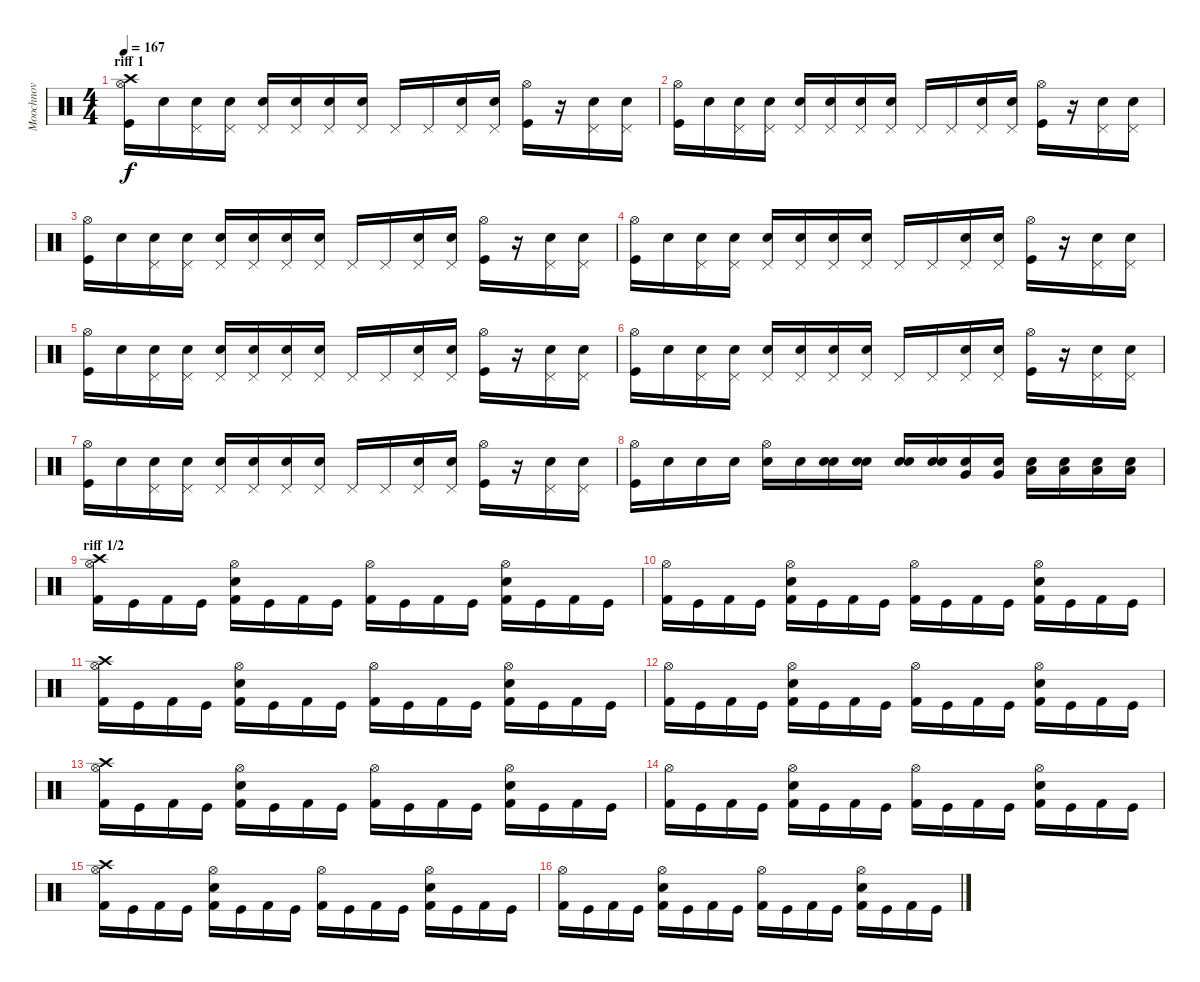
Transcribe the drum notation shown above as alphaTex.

\track ("Moochnov" "Moochnov") {instrument percussion}
\staff {score}
\articulation defaults
\ts (4 4)
\section ("" "riff 1")
\tempo 167
\clef neutral
\ks c
("Kick (hit)" "Hi-Hat (open)" "Crash high (hit)").16{dy f} "Snare (hit)"{x}.16 ("Snare (hit)"{x} "Pedal Hi-Hat (hit)").16 ("Snare (hit)"{x} "Pedal Hi-Hat (hit)").16 ("Snare (hit)"{x} "Pedal Hi-Hat (hit)").16 ("Snare (hit)"{x} "Pedal Hi-Hat (hit)").16 ("Snare (hit) 2" "Pedal Hi-Hat (hit)").16 ("Snare (hit)"{x} "Pedal Hi-Hat (hit)").16 "Pedal Hi-Hat (hit)".16 "Pedal Hi-Hat (hit)".16 ("Snare (hit)"{x} "Pedal Hi-Hat (hit)").16 ("Snare (hit)"{x} "Pedal Hi-Hat (hit)").16 ("Kick (hit)" "Hi-Hat (open)").16 r.16 ("Snare (hit)"{x} "Pedal Hi-Hat (hit)").16 ("Snare (hit)"{x} "Pedal Hi-Hat (hit)").16 |
("Kick (hit)" "Hi-Hat (open)").16 "Snare (hit)"{x}.16 ("Snare (hit)"{x} "Pedal Hi-Hat (hit)").16 ("Snare (hit)"{x} "Pedal Hi-Hat (hit)").16 ("Snare (hit)"{x} "Pedal Hi-Hat (hit)").16 ("Snare (hit)"{x} "Pedal Hi-Hat (hit)").16 ("Snare (hit) 2" "Pedal Hi-Hat (hit)").16 ("Snare (hit)"{x} "Pedal Hi-Hat (hit)").16 "Pedal Hi-Hat (hit)".16 "Pedal Hi-Hat (hit)".16 ("Snare (hit)"{x} "Pedal Hi-Hat (hit)").16 ("Snare (hit)"{x} "Pedal Hi-Hat (hit)").16 ("Kick (hit)" "Hi-Hat (open)").16 r.16 ("Snare (hit)"{x} "Pedal Hi-Hat (hit)").16 ("Snare (hit)"{x} "Pedal Hi-Hat (hit)").16 |
("Kick (hit)" "Hi-Hat (open)").16 "Snare (hit)"{x}.16 ("Snare (hit)"{x} "Pedal Hi-Hat (hit)").16 ("Snare (hit)"{x} "Pedal Hi-Hat (hit)").16 ("Snare (hit)"{x} "Pedal Hi-Hat (hit)").16 ("Snare (hit)"{x} "Pedal Hi-Hat (hit)").16 ("Snare (hit) 2" "Pedal Hi-Hat (hit)").16 ("Snare (hit)"{x} "Pedal Hi-Hat (hit)").16 "Pedal Hi-Hat (hit)".16 "Pedal Hi-Hat (hit)".16 ("Snare (hit)"{x} "Pedal Hi-Hat (hit)").16 ("Snare (hit)"{x} "Pedal Hi-Hat (hit)").16 ("Kick (hit)" "Hi-Hat (open)").16 r.16 ("Snare (hit)"{x} "Pedal Hi-Hat (hit)").16 ("Snare (hit)"{x} "Pedal Hi-Hat (hit)").16 |
("Kick (hit)" "Hi-Hat (open)").16 "Snare (hit)"{x}.16 ("Snare (hit)"{x} "Pedal Hi-Hat (hit)").16 ("Snare (hit)"{x} "Pedal Hi-Hat (hit)").16 ("Snare (hit)"{x} "Pedal Hi-Hat (hit)").16 ("Snare (hit)"{x} "Pedal Hi-Hat (hit)").16 ("Snare (hit) 2" "Pedal Hi-Hat (hit)").16 ("Snare (hit)"{x} "Pedal Hi-Hat (hit)").16 "Pedal Hi-Hat (hit)".16 "Pedal Hi-Hat (hit)".16 ("Snare (hit)"{x} "Pedal Hi-Hat (hit)").16 ("Snare (hit)"{x} "Pedal Hi-Hat (hit)").16 ("Kick (hit)" "Hi-Hat (open)").16 r.16 ("Snare (hit)"{x} "Pedal Hi-Hat (hit)").16 ("Snare (hit)"{x} "Pedal Hi-Hat (hit)").16 |
("Kick (hit)" "Hi-Hat (open)").16 "Snare (hit)"{x}.16 ("Snare (hit)"{x} "Pedal Hi-Hat (hit)").16 ("Snare (hit)"{x} "Pedal Hi-Hat (hit)").16 ("Snare (hit)"{x} "Pedal Hi-Hat (hit)").16 ("Snare (hit)"{x} "Pedal Hi-Hat (hit)").16 ("Snare (hit) 2" "Pedal Hi-Hat (hit)").16 ("Snare (hit)"{x} "Pedal Hi-Hat (hit)").16 "Pedal Hi-Hat (hit)".16 "Pedal Hi-Hat (hit)".16 ("Snare (hit)"{x} "Pedal Hi-Hat (hit)").16 ("Snare (hit)"{x} "Pedal Hi-Hat (hit)").16 ("Kick (hit)" "Hi-Hat (open)").16 r.16 ("Snare (hit)"{x} "Pedal Hi-Hat (hit)").16 ("Snare (hit)"{x} "Pedal Hi-Hat (hit)").16 |
("Kick (hit)" "Hi-Hat (open)").16 "Snare (hit)"{x}.16 ("Snare (hit)"{x} "Pedal Hi-Hat (hit)").16 ("Snare (hit)"{x} "Pedal Hi-Hat (hit)").16 ("Snare (hit)"{x} "Pedal Hi-Hat (hit)").16 ("Snare (hit)"{x} "Pedal Hi-Hat (hit)").16 ("Snare (hit) 2" "Pedal Hi-Hat (hit)").16 ("Snare (hit)"{x} "Pedal Hi-Hat (hit)").16 "Pedal Hi-Hat (hit)".16 "Pedal Hi-Hat (hit)".16 ("Snare (hit)"{x} "Pedal Hi-Hat (hit)").16 ("Snare (hit)"{x} "Pedal Hi-Hat (hit)").16 ("Kick (hit)" "Hi-Hat (open)").16 r.16 ("Snare (hit)"{x} "Pedal Hi-Hat (hit)").16 ("Snare (hit)"{x} "Pedal Hi-Hat (hit)").16 |
("Kick (hit)" "Hi-Hat (open)").16 "Snare (hit)"{x}.16 ("Snare (hit)"{x} "Pedal Hi-Hat (hit)").16 ("Snare (hit)"{x} "Pedal Hi-Hat (hit)").16 ("Snare (hit)"{x} "Pedal Hi-Hat (hit)").16 ("Snare (hit)"{x} "Pedal Hi-Hat (hit)").16 ("Snare (hit) 2" "Pedal Hi-Hat (hit)").16 ("Snare (hit)"{x} "Pedal Hi-Hat (hit)").16 "Pedal Hi-Hat (hit)".16 "Pedal Hi-Hat (hit)".16 ("Snare (hit)"{x} "Pedal Hi-Hat (hit)").16 ("Snare (hit)"{x} "Pedal Hi-Hat (hit)").16 ("Kick (hit)" "Hi-Hat (open)").16 r.16 ("Snare (hit)"{x} "Pedal Hi-Hat (hit)").16 ("Snare (hit)"{x} "Pedal Hi-Hat (hit)").16 |
("Kick (hit)" "Hi-Hat (open)").16 "Snare (hit)"{x}.16 "Snare (hit)"{x}.16 "Snare (hit)"{x}.16 ("Snare (hit)"{x} "Hi-Hat (open)").16 "Snare (hit)"{x}.16 ("Snare (hit)"{x} "Electric Snare (hit)").16 ("Snare (hit)"{x} "Electric Snare (hit)").16 ("Snare (hit)"{x} "Electric Snare (hit)").16 ("Snare (hit)"{x} "Electric Snare (hit)").16 ("Snare (hit)"{x} "Very Low Tom (hit)").16 ("Snare (hit)"{x} "Very Low Tom (hit)").16 ("Snare (hit)"{x} "Low Floor Tom (hit)").16 ("Snare (hit)"{x} "Low Floor Tom (hit)").16 ("Snare (hit)"{x} "Low Floor Tom (hit)").16 ("Snare (hit)"{x} "Low Floor Tom (hit)").16 |
\section ("" "riff 1/2")
("Kick (hit) 2" "Crash high (hit)" "Hi-Hat (open)").16 "Kick (hit)".16 "Kick (hit) 2".16 "Kick (hit)".16 ("Kick (hit) 2" "Snare (hit) 2" "Hi-Hat (open)").16 "Kick (hit)".16 "Kick (hit) 2".16 "Kick (hit)".16 ("Kick (hit) 2" "Hi-Hat (open)").16 "Kick (hit)".16 "Kick (hit) 2".16 "Kick (hit)".16 ("Kick (hit) 2" "Snare (hit) 2" "Hi-Hat (open)").16 "Kick (hit)".16 "Kick (hit) 2".16 "Kick (hit)".16 |
("Kick (hit) 2" "Hi-Hat (open)").16 "Kick (hit)".16 "Kick (hit) 2".16 "Kick (hit)".16 ("Kick (hit) 2" "Snare (hit) 2" "Hi-Hat (open)").16 "Kick (hit)".16 "Kick (hit) 2".16 "Kick (hit)".16 ("Kick (hit) 2" "Hi-Hat (open)").16 "Kick (hit)".16 "Kick (hit) 2".16 "Kick (hit)".16 ("Kick (hit) 2" "Snare (hit) 2" "Hi-Hat (open)").16 "Kick (hit)".16 "Kick (hit) 2".16 "Kick (hit)".16 |
("Kick (hit) 2" "Crash high (hit)" "Hi-Hat (open)").16 "Kick (hit)".16 "Kick (hit) 2".16 "Kick (hit)".16 ("Kick (hit) 2" "Snare (hit) 2" "Hi-Hat (open)").16 "Kick (hit)".16 "Kick (hit) 2".16 "Kick (hit)".16 ("Kick (hit) 2" "Hi-Hat (open)").16 "Kick (hit)".16 "Kick (hit) 2".16 "Kick (hit)".16 ("Kick (hit) 2" "Snare (hit) 2" "Hi-Hat (open)").16 "Kick (hit)".16 "Kick (hit) 2".16 "Kick (hit)".16 |
("Kick (hit) 2" "Hi-Hat (open)").16 "Kick (hit)".16 "Kick (hit) 2".16 "Kick (hit)".16 ("Kick (hit) 2" "Snare (hit) 2" "Hi-Hat (open)").16 "Kick (hit)".16 "Kick (hit) 2".16 "Kick (hit)".16 ("Kick (hit) 2" "Hi-Hat (open)").16 "Kick (hit)".16 "Kick (hit) 2".16 "Kick (hit)".16 ("Kick (hit) 2" "Snare (hit) 2" "Hi-Hat (open)").16 "Kick (hit)".16 "Kick (hit) 2".16 "Kick (hit)".16 |
("Kick (hit) 2" "Crash high (hit)" "Hi-Hat (open)").16 "Kick (hit)".16 "Kick (hit) 2".16 "Kick (hit)".16 ("Kick (hit) 2" "Snare (hit) 2" "Hi-Hat (open)").16 "Kick (hit)".16 "Kick (hit) 2".16 "Kick (hit)".16 ("Kick (hit) 2" "Hi-Hat (open)").16 "Kick (hit)".16 "Kick (hit) 2".16 "Kick (hit)".16 ("Kick (hit) 2" "Snare (hit) 2" "Hi-Hat (open)").16 "Kick (hit)".16 "Kick (hit) 2".16 "Kick (hit)".16 |
("Kick (hit) 2" "Hi-Hat (open)").16 "Kick (hit)".16 "Kick (hit) 2".16 "Kick (hit)".16 ("Kick (hit) 2" "Snare (hit) 2" "Hi-Hat (open)").16 "Kick (hit)".16 "Kick (hit) 2".16 "Kick (hit)".16 ("Kick (hit) 2" "Hi-Hat (open)").16 "Kick (hit)".16 "Kick (hit) 2".16 "Kick (hit)".16 ("Kick (hit) 2" "Snare (hit) 2" "Hi-Hat (open)").16 "Kick (hit)".16 "Kick (hit) 2".16 "Kick (hit)".16 |
("Kick (hit) 2" "Crash high (hit)" "Hi-Hat (open)").16 "Kick (hit)".16 "Kick (hit) 2".16 "Kick (hit)".16 ("Kick (hit) 2" "Snare (hit) 2" "Hi-Hat (open)").16 "Kick (hit)".16 "Kick (hit) 2".16 "Kick (hit)".16 ("Kick (hit) 2" "Hi-Hat (open)").16 "Kick (hit)".16 "Kick (hit) 2".16 "Kick (hit)".16 ("Kick (hit) 2" "Snare (hit) 2" "Hi-Hat (open)").16 "Kick (hit)".16 "Kick (hit) 2".16 "Kick (hit)".16 |
("Kick (hit) 2" "Hi-Hat (open)").16 "Kick (hit)".16 "Kick (hit) 2".16 "Kick (hit)".16 ("Kick (hit) 2" "Snare (hit) 2" "Hi-Hat (open)").16 "Kick (hit)".16 "Kick (hit) 2".16 "Kick (hit)".16 ("Kick (hit) 2" "Hi-Hat (open)").16 "Kick (hit)".16 "Kick (hit) 2".16 "Kick (hit)".16 ("Kick (hit) 2" "Snare (hit) 2" "Hi-Hat (open)").16 "Kick (hit)".16 "Kick (hit) 2".16 "Kick (hit)".16
